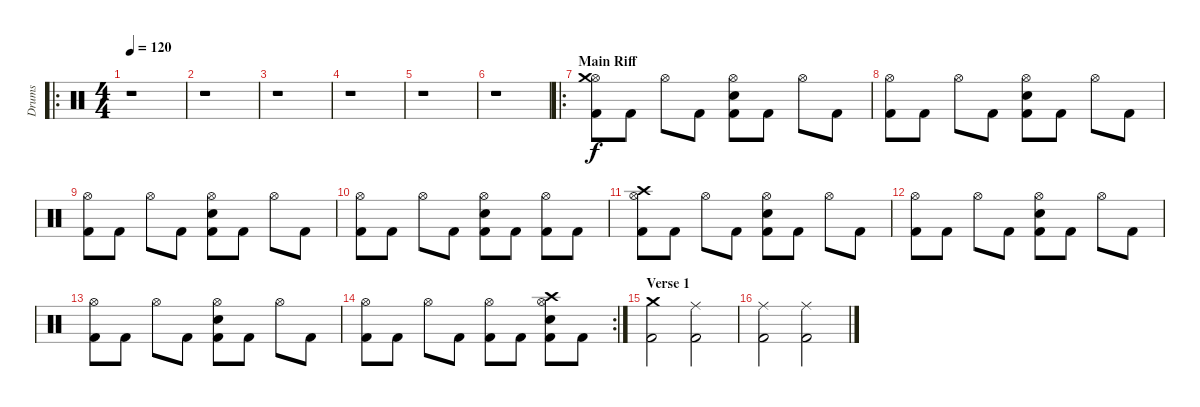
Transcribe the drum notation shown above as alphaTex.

\track ("Drums" "Drums") {instrument percussion}
\staff {score}
\articulation defaults
\ro
\ts (4 4)
\tempo 120
\clef neutral
\ks c
r.1{dy f} |
r.1 |
r.1 |
r.1 |
r.1 |
r.1 |
\ro
\section ("" "Main Riff")
("Hi-Hat (open)" "Crash medium (hit)" "Kick (hit) 2").8 "Kick (hit) 2".8 "Hi-Hat (open)".8 "Kick (hit) 2".8 ("Hi-Hat (open)" "Snare (hit) 2" "Kick (hit) 2").8 "Kick (hit) 2".8 "Hi-Hat (open)".8 "Kick (hit) 2".8 |
("Hi-Hat (open)" "Kick (hit) 2").8 "Kick (hit) 2".8 "Hi-Hat (open)".8 "Kick (hit) 2".8 ("Hi-Hat (open)" "Snare (hit) 2" "Kick (hit) 2").8 "Kick (hit) 2".8 "Hi-Hat (open)".8 "Kick (hit) 2".8 |
("Hi-Hat (open)" "Kick (hit) 2").8 "Kick (hit) 2".8 "Hi-Hat (open)".8 "Kick (hit) 2".8 ("Hi-Hat (open)" "Snare (hit) 2" "Kick (hit) 2").8 "Kick (hit) 2".8 "Hi-Hat (open)".8 "Kick (hit) 2".8 |
("Hi-Hat (open)" "Kick (hit) 2").8 "Kick (hit) 2".8 "Hi-Hat (open)".8 "Kick (hit) 2".8 ("Hi-Hat (open)" "Snare (hit) 2" "Kick (hit) 2").8 "Kick (hit) 2".8 ("Hi-Hat (open)" "Kick (hit) 2").8 "Kick (hit) 2".8 |
("Hi-Hat (open)" "Crash high (hit)" "Kick (hit) 2").8 "Kick (hit) 2".8 "Hi-Hat (open)".8 "Kick (hit) 2".8 ("Hi-Hat (open)" "Snare (hit) 2" "Kick (hit) 2").8 "Kick (hit) 2".8 "Hi-Hat (open)".8 "Kick (hit) 2".8 |
("Hi-Hat (open)" "Kick (hit) 2").8 "Kick (hit) 2".8 "Hi-Hat (open)".8 "Kick (hit) 2".8 ("Hi-Hat (open)" "Snare (hit) 2" "Kick (hit) 2").8 "Kick (hit) 2".8 "Hi-Hat (open)".8 "Kick (hit) 2".8 |
("Hi-Hat (open)" "Kick (hit) 2").8 "Kick (hit) 2".8 "Hi-Hat (open)".8 "Kick (hit) 2".8 ("Hi-Hat (open)" "Snare (hit) 2" "Kick (hit) 2").8 "Kick (hit) 2".8 "Hi-Hat (open)".8 "Kick (hit) 2".8 |
\rc 2
("Hi-Hat (open)" "Kick (hit) 2").8 "Kick (hit) 2".8 "Hi-Hat (open)".8 "Kick (hit) 2".8 ("Hi-Hat (open)" "Kick (hit) 2").8 "Kick (hit) 2".8 ("Hi-Hat (open)" "Crash high (hit)" "Snare (hit) 2" "Kick (hit) 2").8 "Kick (hit) 2".8 |
\section ("" "Verse 1")
("Crash medium (hit)" "Kick (hit) 2").2 ("Ride (middle)" "Kick (hit) 2").2 |
("Ride (middle)" "Kick (hit) 2").2 ("Ride (middle)" "Kick (hit) 2").2
